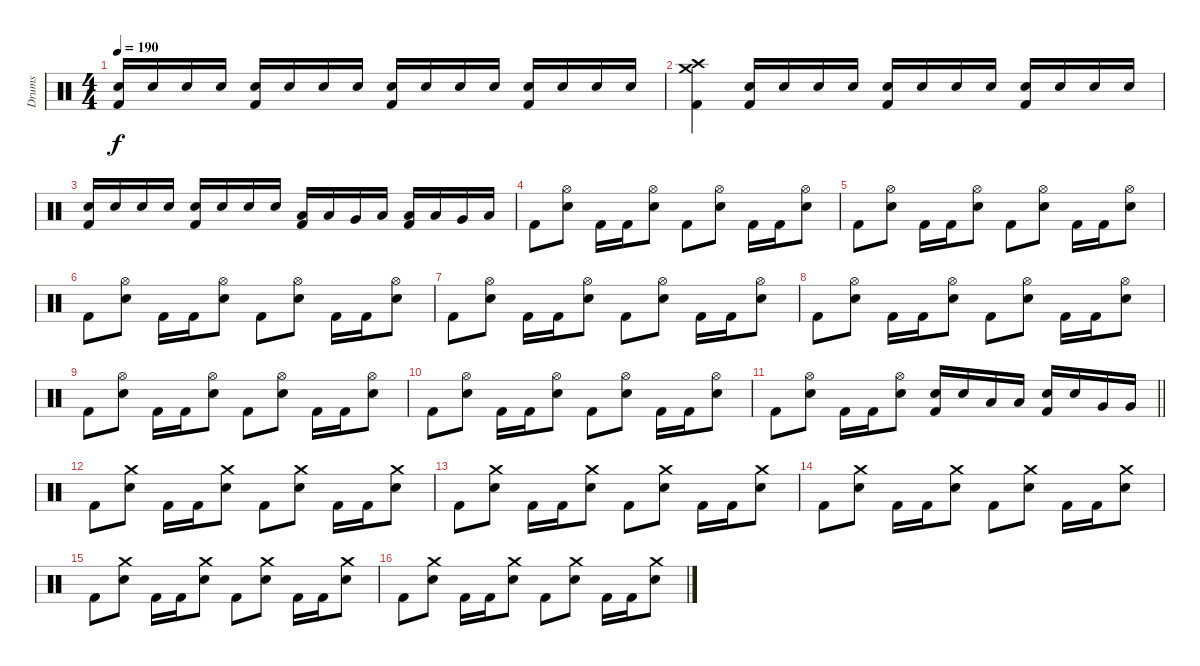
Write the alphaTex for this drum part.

\track ("Drums" "Drums") {instrument percussion}
\staff {score}
\articulation defaults
\ts (4 4)
\tempo 190
\clef neutral
\ks c
("Electric Snare (hit)" "Kick (hit) 2").16{dy f} "Electric Snare (hit)".16 "Electric Snare (hit)".16 "Electric Snare (hit)".16 ("Electric Snare (hit)" "Kick (hit) 2").16 "Electric Snare (hit)".16 "Electric Snare (hit)".16 "Electric Snare (hit)".16 ("Electric Snare (hit)" "Kick (hit) 2").16 "Electric Snare (hit)".16 "Electric Snare (hit)".16 "Electric Snare (hit)".16 ("Electric Snare (hit)" "Kick (hit) 2").16 "Electric Snare (hit)".16 "Electric Snare (hit)".16 "Electric Snare (hit)".16 |
("Crash medium (hit)" "Crash high (hit)" "Kick (hit) 2").4 ("Electric Snare (hit)" "Kick (hit) 2").16 "Electric Snare (hit)".16 "Electric Snare (hit)".16 "Electric Snare (hit)".16 ("Electric Snare (hit)" "Kick (hit) 2").16 "Electric Snare (hit)".16 "Electric Snare (hit)".16 "Electric Snare (hit)".16 ("Electric Snare (hit)" "Kick (hit) 2").16 "Electric Snare (hit)".16 "Electric Snare (hit)".16 "Electric Snare (hit)".16 |
("Electric Snare (hit)" "Kick (hit) 2").16 "Electric Snare (hit)".16 "Electric Snare (hit)".16 "Electric Snare (hit)".16 ("Electric Snare (hit)" "Kick (hit) 2").16 "Electric Snare (hit)".16 "Electric Snare (hit)".16 "Electric Snare (hit)".16 ("Low Tom (hit)" "Kick (hit) 2").16 "Low Tom (hit)".16 "Very Low Tom (hit)".16 "Low Floor Tom (hit)".16 ("Low Tom (hit)" "Kick (hit) 2").16 "Low Tom (hit)".16 "Very Low Tom (hit)".16 "Low Floor Tom (hit)".16 |
"Kick (hit) 2".8 ("Hi-Hat (open)" "Electric Snare (hit)").8 "Kick (hit) 2".16 "Kick (hit) 2".16 ("Hi-Hat (open)" "Electric Snare (hit)").8 "Kick (hit) 2".8 ("Hi-Hat (open)" "Electric Snare (hit)").8 "Kick (hit) 2".16 "Kick (hit) 2".16 ("Hi-Hat (open)" "Electric Snare (hit)").8 |
"Kick (hit) 2".8 ("Hi-Hat (open)" "Electric Snare (hit)").8 "Kick (hit) 2".16 "Kick (hit) 2".16 ("Hi-Hat (open)" "Electric Snare (hit)").8 "Kick (hit) 2".8 ("Hi-Hat (open)" "Electric Snare (hit)").8 "Kick (hit) 2".16 "Kick (hit) 2".16 ("Hi-Hat (open)" "Electric Snare (hit)").8 |
"Kick (hit) 2".8 ("Hi-Hat (open)" "Electric Snare (hit)").8 "Kick (hit) 2".16 "Kick (hit) 2".16 ("Hi-Hat (open)" "Electric Snare (hit)").8 "Kick (hit) 2".8 ("Hi-Hat (open)" "Electric Snare (hit)").8 "Kick (hit) 2".16 "Kick (hit) 2".16 ("Hi-Hat (open)" "Electric Snare (hit)").8 |
"Kick (hit) 2".8 ("Hi-Hat (open)" "Electric Snare (hit)").8 "Kick (hit) 2".16 "Kick (hit) 2".16 ("Hi-Hat (open)" "Electric Snare (hit)").8 "Kick (hit) 2".8 ("Hi-Hat (open)" "Electric Snare (hit)").8 "Kick (hit) 2".16 "Kick (hit) 2".16 ("Hi-Hat (open)" "Electric Snare (hit)").8 |
"Kick (hit) 2".8 ("Hi-Hat (open)" "Electric Snare (hit)").8 "Kick (hit) 2".16 "Kick (hit) 2".16 ("Hi-Hat (open)" "Electric Snare (hit)").8 "Kick (hit) 2".8 ("Hi-Hat (open)" "Electric Snare (hit)").8 "Kick (hit) 2".16 "Kick (hit) 2".16 ("Hi-Hat (open)" "Electric Snare (hit)").8 |
"Kick (hit) 2".8 ("Hi-Hat (open)" "Electric Snare (hit)").8 "Kick (hit) 2".16 "Kick (hit) 2".16 ("Hi-Hat (open)" "Electric Snare (hit)").8 "Kick (hit) 2".8 ("Hi-Hat (open)" "Electric Snare (hit)").8 "Kick (hit) 2".16 "Kick (hit) 2".16 ("Hi-Hat (open)" "Electric Snare (hit)").8 |
"Kick (hit) 2".8 ("Hi-Hat (open)" "Electric Snare (hit)").8 "Kick (hit) 2".16 "Kick (hit) 2".16 ("Hi-Hat (open)" "Electric Snare (hit)").8 "Kick (hit) 2".8 ("Hi-Hat (open)" "Electric Snare (hit)").8 "Kick (hit) 2".16 "Kick (hit) 2".16 ("Hi-Hat (open)" "Electric Snare (hit)").8 |
\barLineRight lightlight "Kick (hit) 2".8
("Hi-Hat (open)" "Electric Snare (hit)").8 "Kick (hit) 2".16 "Kick (hit) 2".16 ("Hi-Hat (open)" "Electric Snare (hit)").8 ("Electric Snare (hit)" "Kick (hit) 2").16 "Electric Snare (hit)".16 "Low Tom (hit)".16 "Low Tom (hit)".16 ("Electric Snare (hit)" "Kick (hit) 2").16 "Electric Snare (hit)".16 "Very Low Tom (hit)".16 "Very Low Tom (hit)".16 |
\section ("" "")
"Kick (hit) 2".8 ("Crash medium (hit)" "Electric Snare (hit)").8 "Kick (hit) 2".16 "Kick (hit) 2".16 ("Crash medium (hit)" "Electric Snare (hit)").8 "Kick (hit) 2".8 ("Crash medium (hit)" "Electric Snare (hit)").8 "Kick (hit) 2".16 "Kick (hit) 2".16 ("Crash medium (hit)" "Electric Snare (hit)").8 |
"Kick (hit) 2".8 ("Crash medium (hit)" "Electric Snare (hit)").8 "Kick (hit) 2".16 "Kick (hit) 2".16 ("Crash medium (hit)" "Electric Snare (hit)").8 "Kick (hit) 2".8 ("Crash medium (hit)" "Electric Snare (hit)").8 "Kick (hit) 2".16 "Kick (hit) 2".16 ("Crash medium (hit)" "Electric Snare (hit)").8 |
"Kick (hit) 2".8 ("Crash medium (hit)" "Electric Snare (hit)").8 "Kick (hit) 2".16 "Kick (hit) 2".16 ("Crash medium (hit)" "Electric Snare (hit)").8 "Kick (hit) 2".8 ("Crash medium (hit)" "Electric Snare (hit)").8 "Kick (hit) 2".16 "Kick (hit) 2".16 ("Crash medium (hit)" "Electric Snare (hit)").8 |
"Kick (hit) 2".8 ("Crash medium (hit)" "Electric Snare (hit)").8 "Kick (hit) 2".16 "Kick (hit) 2".16 ("Crash medium (hit)" "Electric Snare (hit)").8 "Kick (hit) 2".8 ("Crash medium (hit)" "Electric Snare (hit)").8 "Kick (hit) 2".16 "Kick (hit) 2".16 ("Crash medium (hit)" "Electric Snare (hit)").8 |
"Kick (hit) 2".8 ("Crash medium (hit)" "Electric Snare (hit)").8 "Kick (hit) 2".16 "Kick (hit) 2".16 ("Crash medium (hit)" "Electric Snare (hit)").8 "Kick (hit) 2".8 ("Crash medium (hit)" "Electric Snare (hit)").8 "Kick (hit) 2".16 "Kick (hit) 2".16 ("Crash medium (hit)" "Electric Snare (hit)").8
